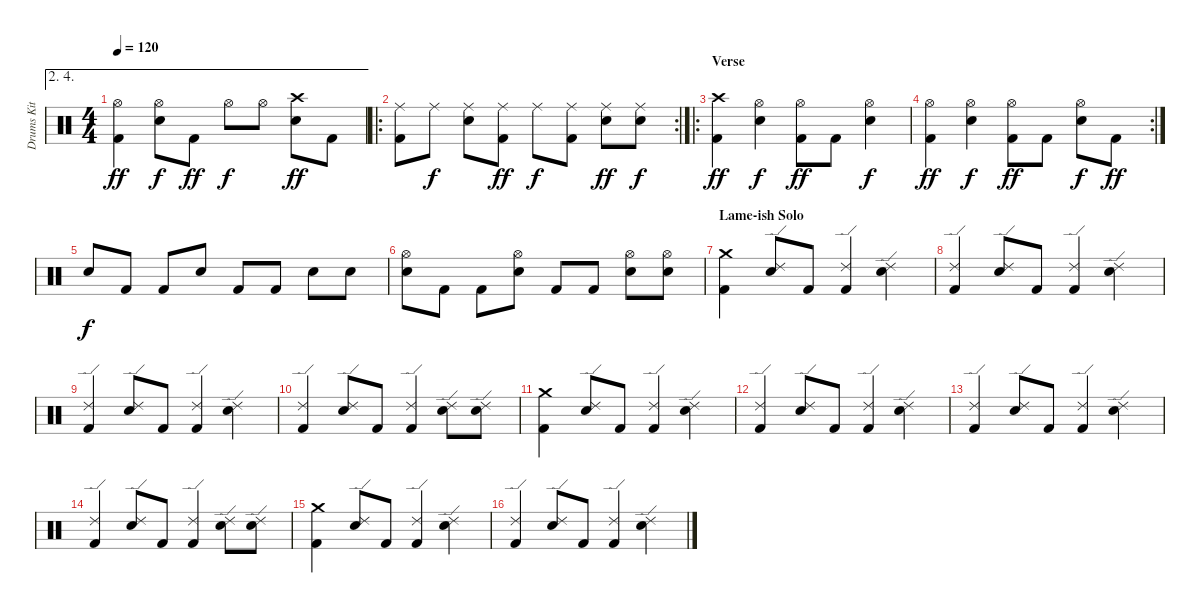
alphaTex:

\track ("Drums Kit 42" "Drums Kit ") {instrument percussion}
\staff {score}
\articulation defaults
\ae (2 4)
\ts (4 4)
\tempo 120
\clef neutral
\ks c
("Hi-Hat (open)" "Kick (hit) 2").4{dy ff} ("Hi-Hat (open)" "Electric Snare (hit)").8{dy f} "Kick (hit) 2".8{dy ff} "Hi-Hat (open)".8{dy f} "Hi-Hat (open)".8 ("Crash high (hit)" "Electric Snare (hit)").8{dy ff} "Kick (hit) 2".8 |
\ro
\rc 2
("Ride (middle)" "Kick (hit) 2").8 "Ride (middle)".8{dy f} ("Ride (middle)" "Electric Snare (hit)").8 ("Ride (middle)" "Kick (hit) 2").8{dy ff} "Ride (middle)".8{dy f} ("Ride (middle)" "Kick (hit) 2").8 ("Ride (middle)" "Electric Snare (hit)").8{dy ff} ("Ride (middle)" "Electric Snare (hit)").8{dy f} |
\ro
\section ("" "Verse")
("Crash high (hit)" "Kick (hit) 2").4{dy ff} ("Hi-Hat (open)" "Electric Snare (hit)").4{dy f} ("Hi-Hat (open)" "Kick (hit) 2").8{dy ff} "Kick (hit) 2".8 ("Hi-Hat (open)" "Electric Snare (hit)").4{dy f} |
\rc 2
("Hi-Hat (open)" "Kick (hit) 2").4{dy ff} ("Hi-Hat (open)" "Electric Snare (hit)").4{dy f} ("Hi-Hat (open)" "Kick (hit) 2").8{dy ff} "Kick (hit) 2".8 ("Hi-Hat (open)" "Electric Snare (hit)").8{dy f} "Kick (hit) 2".8{dy ff} |
"Electric Snare (hit)".8{dy f} "Kick (hit) 2".8 "Kick (hit) 2".8 "Electric Snare (hit)".8 "Kick (hit) 2".8 "Kick (hit) 2".8 "Electric Snare (hit)".8 "Electric Snare (hit)".8 |
("Hi-Hat (open)" "Electric Snare (hit)").8 "Kick (hit) 2".8 "Kick (hit) 2".8 ("Hi-Hat (open)" "Electric Snare (hit)").8 "Kick (hit) 2".8 "Kick (hit) 2".8 ("Hi-Hat (open)" "Electric Snare (hit)").8 ("Hi-Hat (open)" "Electric Snare (hit)").8 |
\section ("" "Lame-ish Solo")
("Crash medium (hit)" "Kick (hit) 2").4 ("Ride (edge) 2" "Electric Snare (hit)").8 "Kick (hit) 2".8 ("Ride (edge) 2" "Kick (hit) 2").4 ("Ride (edge) 2" "Electric Snare (hit)").4 |
("Ride (edge) 2" "Kick (hit) 2").4 ("Ride (edge) 2" "Electric Snare (hit)").8 "Kick (hit) 2".8 ("Ride (edge) 2" "Kick (hit) 2").4 ("Ride (edge) 2" "Electric Snare (hit)").4 |
("Ride (edge) 2" "Kick (hit) 2").4 ("Ride (edge) 2" "Electric Snare (hit)").8 "Kick (hit) 2".8 ("Ride (edge) 2" "Kick (hit) 2").4 ("Ride (edge) 2" "Electric Snare (hit)").4 |
("Ride (edge) 2" "Kick (hit) 2").4 ("Ride (edge) 2" "Electric Snare (hit)").8 "Kick (hit) 2".8 ("Ride (edge) 2" "Kick (hit) 2").4 ("Ride (edge) 2" "Electric Snare (hit)").8 ("Ride (edge) 2" "Electric Snare (hit)").8 |
("Crash medium (hit)" "Kick (hit) 2").4 ("Ride (edge) 2" "Electric Snare (hit)").8 "Kick (hit) 2".8 ("Ride (edge) 2" "Kick (hit) 2").4 ("Ride (edge) 2" "Electric Snare (hit)").4 |
("Ride (edge) 2" "Kick (hit) 2").4 ("Ride (edge) 2" "Electric Snare (hit)").8 "Kick (hit) 2".8 ("Ride (edge) 2" "Kick (hit) 2").4 ("Ride (edge) 2" "Electric Snare (hit)").4 |
("Ride (edge) 2" "Kick (hit) 2").4 ("Ride (edge) 2" "Electric Snare (hit)").8 "Kick (hit) 2".8 ("Ride (edge) 2" "Kick (hit) 2").4 ("Ride (edge) 2" "Electric Snare (hit)").4 |
("Ride (edge) 2" "Kick (hit) 2").4 ("Ride (edge) 2" "Electric Snare (hit)").8 "Kick (hit) 2".8 ("Ride (edge) 2" "Kick (hit) 2").4 ("Ride (edge) 2" "Electric Snare (hit)").8 ("Ride (edge) 2" "Electric Snare (hit)").8 |
("Crash medium (hit)" "Kick (hit) 2").4 ("Ride (edge) 2" "Electric Snare (hit)").8 "Kick (hit) 2".8 ("Ride (edge) 2" "Kick (hit) 2").4 ("Ride (edge) 2" "Electric Snare (hit)").4 |
("Ride (edge) 2" "Kick (hit) 2").4 ("Ride (edge) 2" "Electric Snare (hit)").8 "Kick (hit) 2".8 ("Ride (edge) 2" "Kick (hit) 2").4 ("Ride (edge) 2" "Electric Snare (hit)").4
